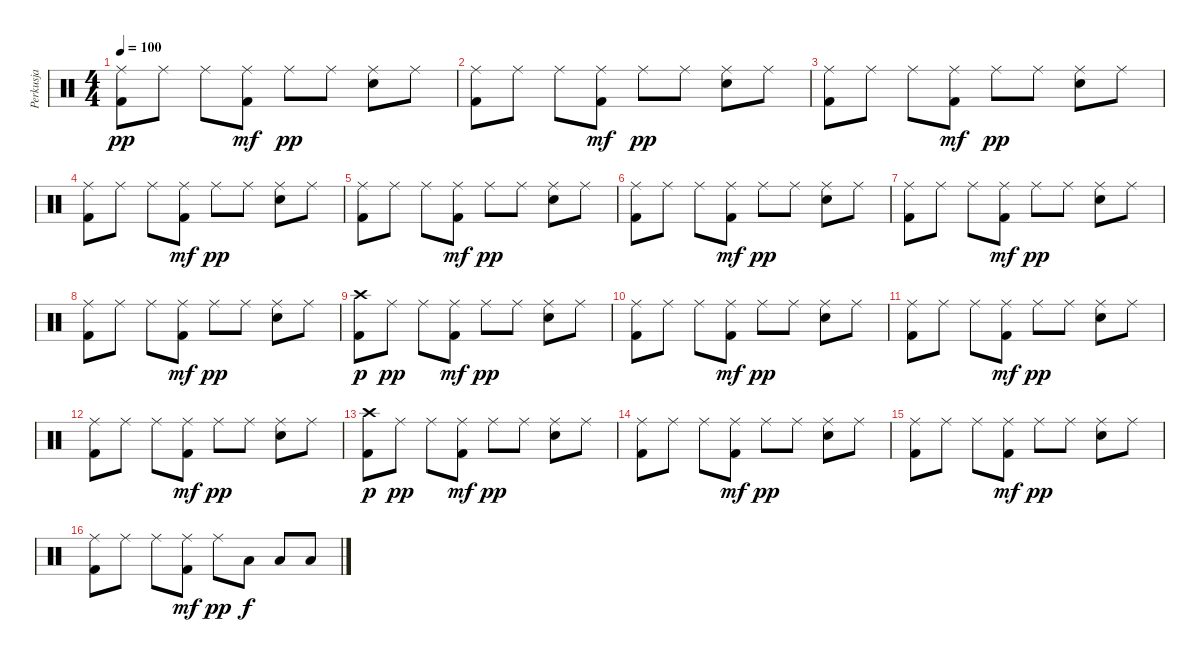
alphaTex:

\track ("Perkusja" "Perkusja") {instrument percussion}
\staff {score}
\articulation defaults
\ts (4 4)
\tempo 100
\clef neutral
\ks c
("Kick (hit) 2" "Ride (middle)").8{dy pp} "Ride (middle)".8 "Ride (middle)".8 ("Ride (middle)" "Kick (hit) 2").8{dy mf} "Ride (middle)".8{dy pp} "Ride (middle)".8 ("Ride (middle)" "Electric Snare (hit)").8 "Ride (middle)".8 |
("Kick (hit) 2" "Ride (middle)").8 "Ride (middle)".8 "Ride (middle)".8 ("Ride (middle)" "Kick (hit) 2").8{dy mf} "Ride (middle)".8{dy pp} "Ride (middle)".8 ("Ride (middle)" "Electric Snare (hit)").8 "Ride (middle)".8 |
("Kick (hit) 2" "Ride (middle)").8 "Ride (middle)".8 "Ride (middle)".8 ("Ride (middle)" "Kick (hit) 2").8{dy mf} "Ride (middle)".8{dy pp} "Ride (middle)".8 ("Ride (middle)" "Electric Snare (hit)").8 "Ride (middle)".8 |
("Kick (hit) 2" "Ride (middle)").8 "Ride (middle)".8 "Ride (middle)".8 ("Ride (middle)" "Kick (hit) 2").8{dy mf} "Ride (middle)".8{dy pp} "Ride (middle)".8 ("Ride (middle)" "Electric Snare (hit)").8 "Ride (middle)".8 |
("Kick (hit) 2" "Ride (middle)").8 "Ride (middle)".8 "Ride (middle)".8 ("Ride (middle)" "Kick (hit) 2").8{dy mf} "Ride (middle)".8{dy pp} "Ride (middle)".8 ("Ride (middle)" "Electric Snare (hit)").8 "Ride (middle)".8 |
("Kick (hit) 2" "Ride (middle)").8 "Ride (middle)".8 "Ride (middle)".8 ("Ride (middle)" "Kick (hit) 2").8{dy mf} "Ride (middle)".8{dy pp} "Ride (middle)".8 ("Ride (middle)" "Electric Snare (hit)").8 "Ride (middle)".8 |
("Kick (hit) 2" "Ride (middle)").8 "Ride (middle)".8 "Ride (middle)".8 ("Ride (middle)" "Kick (hit) 2").8{dy mf} "Ride (middle)".8{dy pp} "Ride (middle)".8 ("Ride (middle)" "Electric Snare (hit)").8 "Ride (middle)".8 |
("Kick (hit) 2" "Ride (middle)").8 "Ride (middle)".8 "Ride (middle)".8 ("Ride (middle)" "Kick (hit) 2").8{dy mf} "Ride (middle)".8{dy pp} "Ride (middle)".8 ("Ride (middle)" "Electric Snare (hit)").8 "Ride (middle)".8 |
("Kick (hit) 2" "Crash high (hit)").8{dy p} "Ride (middle)".8{dy pp} "Ride (middle)".8 ("Ride (middle)" "Kick (hit) 2").8{dy mf} "Ride (middle)".8{dy pp} "Ride (middle)".8 ("Ride (middle)" "Electric Snare (hit)").8 "Ride (middle)".8 |
("Kick (hit) 2" "Ride (middle)").8 "Ride (middle)".8 "Ride (middle)".8 ("Ride (middle)" "Kick (hit) 2").8{dy mf} "Ride (middle)".8{dy pp} "Ride (middle)".8 ("Ride (middle)" "Electric Snare (hit)").8 "Ride (middle)".8 |
("Kick (hit) 2" "Ride (middle)").8 "Ride (middle)".8 "Ride (middle)".8 ("Ride (middle)" "Kick (hit) 2").8{dy mf} "Ride (middle)".8{dy pp} "Ride (middle)".8 ("Ride (middle)" "Electric Snare (hit)").8 "Ride (middle)".8 |
("Kick (hit) 2" "Ride (middle)").8 "Ride (middle)".8 "Ride (middle)".8 ("Ride (middle)" "Kick (hit) 2").8{dy mf} "Ride (middle)".8{dy pp} "Ride (middle)".8 ("Ride (middle)" "Electric Snare (hit)").8 "Ride (middle)".8 |
("Kick (hit) 2" "Crash high (hit)").8{dy p} "Ride (middle)".8{dy pp} "Ride (middle)".8 ("Ride (middle)" "Kick (hit) 2").8{dy mf} "Ride (middle)".8{dy pp} "Ride (middle)".8 ("Ride (middle)" "Electric Snare (hit)").8 "Ride (middle)".8 |
("Kick (hit) 2" "Ride (middle)").8 "Ride (middle)".8 "Ride (middle)".8 ("Ride (middle)" "Kick (hit) 2").8{dy mf} "Ride (middle)".8{dy pp} "Ride (middle)".8 ("Ride (middle)" "Electric Snare (hit)").8 "Ride (middle)".8 |
("Kick (hit) 2" "Ride (middle)").8 "Ride (middle)".8 "Ride (middle)".8 ("Ride (middle)" "Kick (hit) 2").8{dy mf} "Ride (middle)".8{dy pp} "Ride (middle)".8 ("Ride (middle)" "Electric Snare (hit)").8 "Ride (middle)".8 |
("Kick (hit) 2" "Ride (middle)").8 "Ride (middle)".8 "Ride (middle)".8 ("Ride (middle)" "Kick (hit) 2").8{dy mf} "Ride (middle)".8{dy pp} "Low Tom (hit)".8{dy f} "Low Tom (hit)".8 "Low Floor Tom (hit)".8
